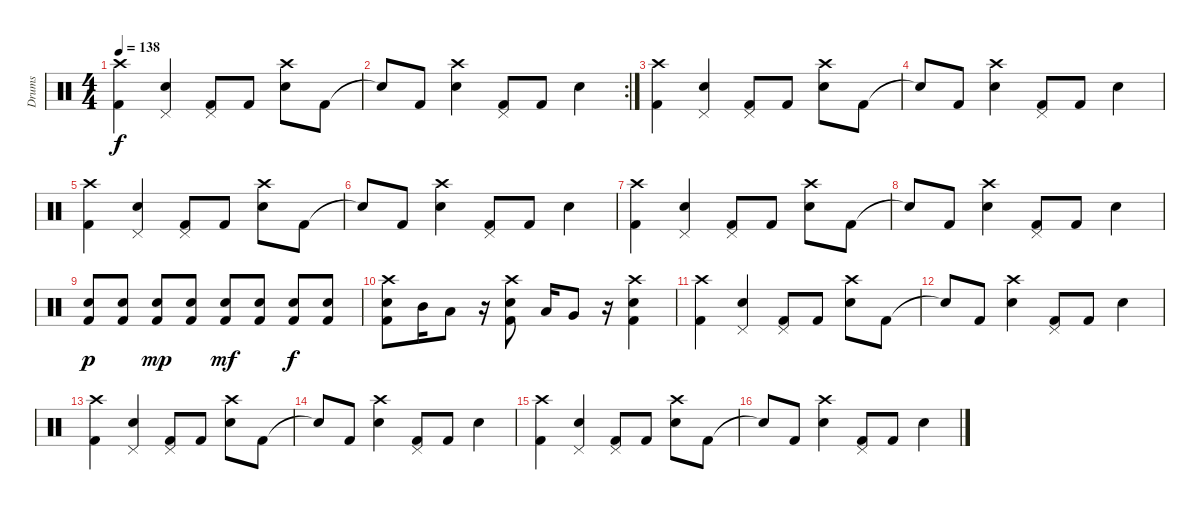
\track ("Drums" "Drums") {instrument percussion}
\staff {score}
\articulation defaults
\ts (4 4)
\tempo 138
\clef neutral
\ks c
("Crash high (hit)" "Kick (hit) 2").4{dy f} ("Pedal Hi-Hat (hit)" "Snare (hit) 2").4 ("Pedal Hi-Hat (hit)" "Kick (hit) 2").8 "Kick (hit) 2".8 ("Crash high (hit)" "Snare (hit) 2").8 "Kick (hit) 2".8 |
\rc 2 "Snare (hit)"{t}.8 "Kick (hit) 2".8
("Crash high (hit)" "Snare (hit) 2").4 ("Pedal Hi-Hat (hit)" "Kick (hit) 2").8 "Kick (hit) 2".8 "Snare (hit) 2".4 |
("Crash high (hit)" "Kick (hit) 2").4 ("Pedal Hi-Hat (hit)" "Snare (hit) 2").4 ("Pedal Hi-Hat (hit)" "Kick (hit) 2").8 "Kick (hit) 2".8 ("Crash high (hit)" "Snare (hit) 2").8 "Kick (hit) 2".8 |
"Snare (hit)"{t}.8 "Kick (hit) 2".8 ("Crash high (hit)" "Snare (hit) 2").4 ("Pedal Hi-Hat (hit)" "Kick (hit) 2").8 "Kick (hit) 2".8 "Snare (hit) 2".4 |
("Crash high (hit)" "Kick (hit) 2").4 ("Pedal Hi-Hat (hit)" "Snare (hit) 2").4 ("Pedal Hi-Hat (hit)" "Kick (hit) 2").8 "Kick (hit) 2".8 ("Crash high (hit)" "Snare (hit) 2").8 "Kick (hit) 2".8 |
"Snare (hit)"{t}.8 "Kick (hit) 2".8 ("Crash high (hit)" "Snare (hit) 2").4 ("Pedal Hi-Hat (hit)" "Kick (hit) 2").8 "Kick (hit) 2".8 "Snare (hit) 2".4 |
("Crash high (hit)" "Kick (hit) 2").4 ("Pedal Hi-Hat (hit)" "Snare (hit) 2").4 ("Pedal Hi-Hat (hit)" "Kick (hit) 2").8 "Kick (hit) 2".8 ("Crash high (hit)" "Snare (hit) 2").8 "Kick (hit) 2".8 |
"Snare (hit)"{t}.8 "Kick (hit) 2".8 ("Crash high (hit)" "Snare (hit) 2").4 ("Pedal Hi-Hat (hit)" "Kick (hit) 2").8 "Kick (hit) 2".8 "Snare (hit) 2".4 |
("Electric Snare (hit)" "Kick (hit) 2").8{dy p} ("Electric Snare (hit)" "Kick (hit) 2").8 ("Electric Snare (hit)" "Kick (hit) 2").8{dy mp} ("Electric Snare (hit)" "Kick (hit) 2").8 ("Electric Snare (hit)" "Kick (hit) 2").8{dy mf} ("Electric Snare (hit)" "Kick (hit) 2").8 ("Electric Snare (hit)" "Kick (hit) 2").8{dy f} ("Electric Snare (hit)" "Kick (hit) 2").8 |
("Crash high (hit)" "Snare (hit) 2" "Kick (hit) 2").8 "Mid Tom (hit)".16 "Low Tom (hit)".8 r.16 ("Crash high (hit)" "Snare (hit) 2" "Kick (hit) 2").8 "Low Tom (hit)".16 "Very Low Tom (hit)".8 r.16 ("Crash high (hit)" "Snare (hit) 2" "Kick (hit) 2").4 |
("Crash high (hit)" "Kick (hit) 2").4 ("Pedal Hi-Hat (hit)" "Snare (hit) 2").4 ("Pedal Hi-Hat (hit)" "Kick (hit) 2").8 "Kick (hit) 2".8 ("Crash high (hit)" "Snare (hit) 2").8 "Kick (hit) 2".8 |
"Snare (hit)"{t}.8 "Kick (hit) 2".8 ("Crash high (hit)" "Snare (hit) 2").4 ("Pedal Hi-Hat (hit)" "Kick (hit) 2").8 "Kick (hit) 2".8 "Snare (hit) 2".4 |
("Crash high (hit)" "Kick (hit) 2").4 ("Pedal Hi-Hat (hit)" "Snare (hit) 2").4 ("Pedal Hi-Hat (hit)" "Kick (hit) 2").8 "Kick (hit) 2".8 ("Crash high (hit)" "Snare (hit) 2").8 "Kick (hit) 2".8 |
"Snare (hit)"{t}.8 "Kick (hit) 2".8 ("Crash high (hit)" "Snare (hit) 2").4 ("Pedal Hi-Hat (hit)" "Kick (hit) 2").8 "Kick (hit) 2".8 "Snare (hit) 2".4 |
("Crash high (hit)" "Kick (hit) 2").4 ("Pedal Hi-Hat (hit)" "Snare (hit) 2").4 ("Pedal Hi-Hat (hit)" "Kick (hit) 2").8 "Kick (hit) 2".8 ("Crash high (hit)" "Snare (hit) 2").8 "Kick (hit) 2".8 |
"Snare (hit)"{t}.8 "Kick (hit) 2".8 ("Crash high (hit)" "Snare (hit) 2").4 ("Pedal Hi-Hat (hit)" "Kick (hit) 2").8 "Kick (hit) 2".8 "Snare (hit) 2".4
